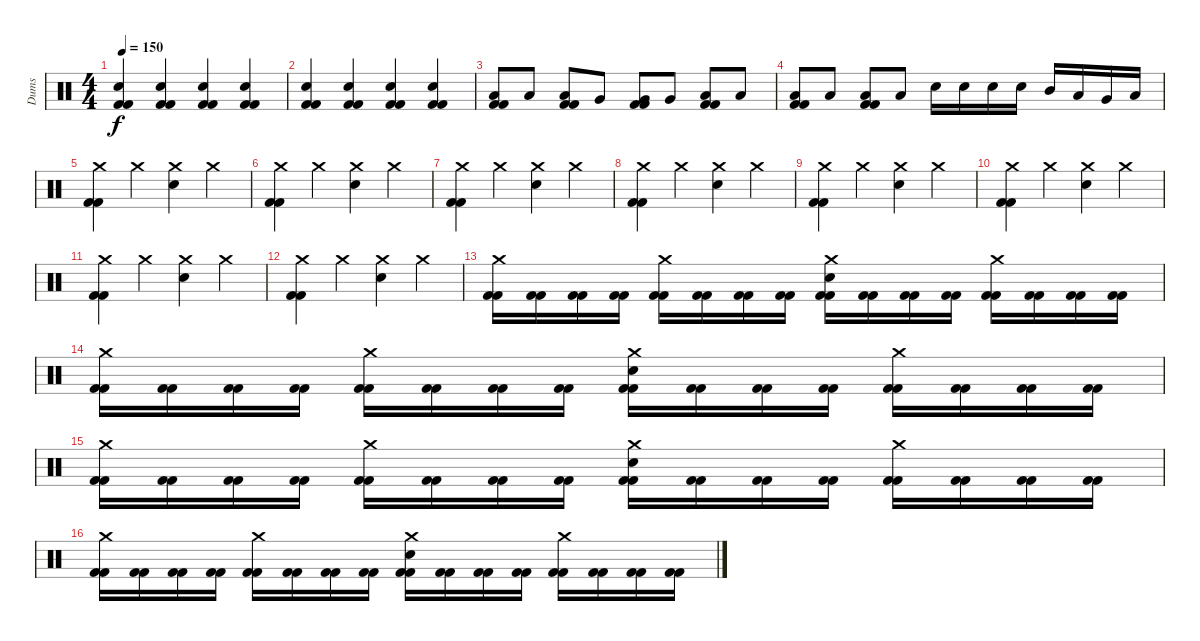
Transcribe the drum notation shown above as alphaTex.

\track ("Dums" "Dums") {instrument percussion}
\staff {score}
\articulation defaults
\ts (4 4)
\tempo 150
\clef neutral
\ks c
("Electric Snare (hit)" "Kick (hit) 2" "Kick (hit) 2").4{dy f} ("Electric Snare (hit)" "Kick (hit) 2" "Kick (hit) 2").4 ("Electric Snare (hit)" "Kick (hit) 2" "Kick (hit) 2").4 ("Electric Snare (hit)" "Kick (hit) 2" "Kick (hit) 2").4 |
("Electric Snare (hit)" "Kick (hit) 2" "Kick (hit) 2").4 ("Electric Snare (hit)" "Kick (hit) 2" "Kick (hit) 2").4 ("Electric Snare (hit)" "Kick (hit) 2" "Kick (hit) 2").4 ("Electric Snare (hit)" "Kick (hit) 2" "Kick (hit) 2").4 |
("Low Tom (hit)" "Kick (hit) 2" "Kick (hit) 2").8 "Low Tom (hit)".8 ("Low Tom (hit)" "Kick (hit) 2" "Kick (hit) 2").8 "Very Low Tom (hit)".8 ("Very Low Tom (hit)" "Kick (hit) 2" "Kick (hit) 2").8 "Very Low Tom (hit)".8 ("Low Floor Tom (hit)" "Kick (hit) 2" "Kick (hit) 2").8 "Low Floor Tom (hit)".8 |
("Low Floor Tom (hit)" "Kick (hit) 2" "Kick (hit) 2").8 "Low Floor Tom (hit)".8 ("Low Floor Tom (hit)" "Kick (hit) 2" "Kick (hit) 2").8 "Low Floor Tom (hit)".8 "Electric Snare (hit)".16 "Electric Snare (hit)".16 "Electric Snare (hit)".16 "Electric Snare (hit)".16 "Mid Tom (hit)".16 "Low Tom (hit)".16 "Very Low Tom (hit)".16 "Low Floor Tom (hit)".16 |
("Crash medium (hit)" "Kick (hit) 2" "Kick (hit) 2").4 "Crash medium (hit)".4 ("Crash medium (hit)" "Electric Snare (hit)").4 "Crash medium (hit)".4 |
("Crash medium (hit)" "Kick (hit) 2" "Kick (hit) 2").4 "Crash medium (hit)".4 ("Crash medium (hit)" "Electric Snare (hit)").4 "Crash medium (hit)".4 |
("Crash medium (hit)" "Kick (hit) 2" "Kick (hit) 2").4 "Crash medium (hit)".4 ("Crash medium (hit)" "Electric Snare (hit)").4 "Crash medium (hit)".4 |
("Crash medium (hit)" "Kick (hit) 2" "Kick (hit) 2").4 "Crash medium (hit)".4 ("Crash medium (hit)" "Electric Snare (hit)").4 "Crash medium (hit)".4 |
("Crash medium (hit)" "Kick (hit) 2" "Kick (hit) 2").4 "Crash medium (hit)".4 ("Crash medium (hit)" "Electric Snare (hit)").4 "Crash medium (hit)".4 |
("Crash medium (hit)" "Kick (hit) 2" "Kick (hit) 2").4 "Crash medium (hit)".4 ("Crash medium (hit)" "Electric Snare (hit)").4 "Crash medium (hit)".4 |
("Crash medium (hit)" "Kick (hit) 2" "Kick (hit) 2").4 "Crash medium (hit)".4 ("Crash medium (hit)" "Electric Snare (hit)").4 "Crash medium (hit)".4 |
("Crash medium (hit)" "Kick (hit) 2" "Kick (hit) 2").4 "Crash medium (hit)".4 ("Crash medium (hit)" "Electric Snare (hit)").4 "Crash medium (hit)".4 |
("Crash medium (hit)" "Kick (hit) 2" "Kick (hit) 2").16 ("Kick (hit) 2" "Kick (hit) 2").16 ("Kick (hit) 2" "Kick (hit) 2").16 ("Kick (hit) 2" "Kick (hit) 2").16 ("Crash medium (hit)" "Kick (hit) 2" "Kick (hit) 2").16 ("Kick (hit) 2" "Kick (hit) 2").16 ("Kick (hit) 2" "Kick (hit) 2").16 ("Kick (hit) 2" "Kick (hit) 2").16 ("Crash medium (hit)" "Electric Snare (hit)" "Kick (hit) 2" "Kick (hit) 2").16 ("Kick (hit) 2" "Kick (hit) 2").16 ("Kick (hit) 2" "Kick (hit) 2").16 ("Kick (hit) 2" "Kick (hit) 2").16 ("Crash medium (hit)" "Kick (hit) 2" "Kick (hit) 2").16 ("Kick (hit) 2" "Kick (hit) 2").16 ("Kick (hit) 2" "Kick (hit) 2").16 ("Kick (hit) 2" "Kick (hit) 2").16 |
("Crash medium (hit)" "Kick (hit) 2" "Kick (hit) 2").16 ("Kick (hit) 2" "Kick (hit) 2").16 ("Kick (hit) 2" "Kick (hit) 2").16 ("Kick (hit) 2" "Kick (hit) 2").16 ("Crash medium (hit)" "Kick (hit) 2" "Kick (hit) 2").16 ("Kick (hit) 2" "Kick (hit) 2").16 ("Kick (hit) 2" "Kick (hit) 2").16 ("Kick (hit) 2" "Kick (hit) 2").16 ("Crash medium (hit)" "Electric Snare (hit)" "Kick (hit) 2" "Kick (hit) 2").16 ("Kick (hit) 2" "Kick (hit) 2").16 ("Kick (hit) 2" "Kick (hit) 2").16 ("Kick (hit) 2" "Kick (hit) 2").16 ("Crash medium (hit)" "Kick (hit) 2" "Kick (hit) 2").16 ("Kick (hit) 2" "Kick (hit) 2").16 ("Kick (hit) 2" "Kick (hit) 2").16 ("Kick (hit) 2" "Kick (hit) 2").16 |
("Crash medium (hit)" "Kick (hit) 2" "Kick (hit) 2").16 ("Kick (hit) 2" "Kick (hit) 2").16 ("Kick (hit) 2" "Kick (hit) 2").16 ("Kick (hit) 2" "Kick (hit) 2").16 ("Crash medium (hit)" "Kick (hit) 2" "Kick (hit) 2").16 ("Kick (hit) 2" "Kick (hit) 2").16 ("Kick (hit) 2" "Kick (hit) 2").16 ("Kick (hit) 2" "Kick (hit) 2").16 ("Crash medium (hit)" "Electric Snare (hit)" "Kick (hit) 2" "Kick (hit) 2").16 ("Kick (hit) 2" "Kick (hit) 2").16 ("Kick (hit) 2" "Kick (hit) 2").16 ("Kick (hit) 2" "Kick (hit) 2").16 ("Crash medium (hit)" "Kick (hit) 2" "Kick (hit) 2").16 ("Kick (hit) 2" "Kick (hit) 2").16 ("Kick (hit) 2" "Kick (hit) 2").16 ("Kick (hit) 2" "Kick (hit) 2").16 |
("Crash medium (hit)" "Kick (hit) 2" "Kick (hit) 2").16 ("Kick (hit) 2" "Kick (hit) 2").16 ("Kick (hit) 2" "Kick (hit) 2").16 ("Kick (hit) 2" "Kick (hit) 2").16 ("Crash medium (hit)" "Kick (hit) 2" "Kick (hit) 2").16 ("Kick (hit) 2" "Kick (hit) 2").16 ("Kick (hit) 2" "Kick (hit) 2").16 ("Kick (hit) 2" "Kick (hit) 2").16 ("Crash medium (hit)" "Electric Snare (hit)" "Kick (hit) 2" "Kick (hit) 2").16 ("Kick (hit) 2" "Kick (hit) 2").16 ("Kick (hit) 2" "Kick (hit) 2").16 ("Kick (hit) 2" "Kick (hit) 2").16 ("Crash medium (hit)" "Kick (hit) 2" "Kick (hit) 2").16 ("Kick (hit) 2" "Kick (hit) 2").16 ("Kick (hit) 2" "Kick (hit) 2").16 ("Kick (hit) 2" "Kick (hit) 2").16
